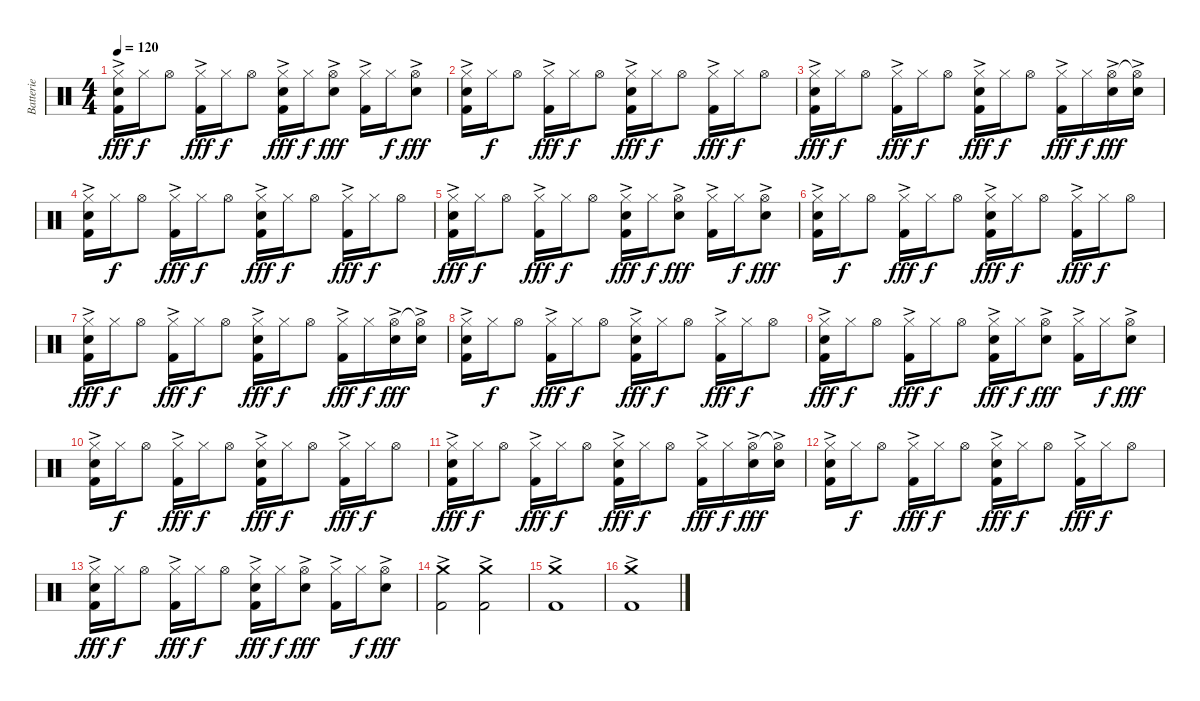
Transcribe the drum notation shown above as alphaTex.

\track ("Batterie" "Batterie") {instrument percussion}
\staff {score}
\articulation defaults
\ts (4 4)
\tempo 120
\clef neutral
\ks c
("Hi-Hat (closed)" "Electric Snare (hit)"{ac} "Kick (hit) 2"{ac}).16{dy fff} "Hi-Hat (closed)".16{dy f} "Hi-Hat (open)".8 ("Hi-Hat (closed)" "Kick (hit) 2"{ac}).16{dy fff} "Hi-Hat (closed)".16{dy f} "Hi-Hat (open)".8 ("Hi-Hat (closed)" "Electric Snare (hit)"{ac} "Kick (hit) 2"{ac}).16{dy fff} "Hi-Hat (closed)".16{dy f} ("Hi-Hat (open)" "Electric Snare (hit)"{ac}).8{dy fff} ("Hi-Hat (closed)" "Kick (hit) 2"{ac}).16 "Hi-Hat (closed)".16{dy f} ("Hi-Hat (open)" "Electric Snare (hit)"{ac}).8{dy fff} |
("Hi-Hat (closed)" "Electric Snare (hit)"{ac} "Kick (hit) 2"{ac}).16 "Hi-Hat (closed)".16{dy f} "Hi-Hat (open)".8 ("Hi-Hat (closed)" "Kick (hit) 2"{ac}).16{dy fff} "Hi-Hat (closed)".16{dy f} "Hi-Hat (open)".8 ("Hi-Hat (closed)" "Electric Snare (hit)"{ac} "Kick (hit) 2"{ac}).16{dy fff} "Hi-Hat (closed)".16{dy f} "Hi-Hat (open)".8 ("Hi-Hat (closed)" "Kick (hit) 2"{ac}).16{dy fff} "Hi-Hat (closed)".16{dy f} "Hi-Hat (open)".8 |
("Hi-Hat (closed)" "Electric Snare (hit)"{ac} "Kick (hit) 2"{ac}).16{dy fff} "Hi-Hat (closed)".16{dy f} "Hi-Hat (open)".8 ("Hi-Hat (closed)" "Kick (hit) 2"{ac}).16{dy fff} "Hi-Hat (closed)".16{dy f} "Hi-Hat (open)".8 ("Hi-Hat (closed)" "Electric Snare (hit)"{ac} "Kick (hit) 2"{ac}).16{dy fff} "Hi-Hat (closed)".16{dy f} "Hi-Hat (open)".8 ("Hi-Hat (closed)" "Kick (hit) 2"{ac}).16{dy fff} "Hi-Hat (closed)".16{dy f} ("Hi-Hat (open)" "Electric Snare (hit)"{ac}).16{dy fff} ("Hi-Hat (open)"{t} "Electric Snare (hit)"{ac}).16 |
("Hi-Hat (closed)" "Electric Snare (hit)"{ac} "Kick (hit) 2"{ac}).16 "Hi-Hat (closed)".16{dy f} "Hi-Hat (open)".8 ("Hi-Hat (closed)" "Kick (hit) 2"{ac}).16{dy fff} "Hi-Hat (closed)".16{dy f} "Hi-Hat (open)".8 ("Hi-Hat (closed)" "Electric Snare (hit)"{ac} "Kick (hit) 2"{ac}).16{dy fff} "Hi-Hat (closed)".16{dy f} "Hi-Hat (open)".8 ("Hi-Hat (closed)" "Kick (hit) 2"{ac}).16{dy fff} "Hi-Hat (closed)".16{dy f} "Hi-Hat (open)".8 |
("Hi-Hat (closed)" "Electric Snare (hit)"{ac} "Kick (hit) 2"{ac}).16{dy fff} "Hi-Hat (closed)".16{dy f} "Hi-Hat (open)".8 ("Hi-Hat (closed)" "Kick (hit) 2"{ac}).16{dy fff} "Hi-Hat (closed)".16{dy f} "Hi-Hat (open)".8 ("Hi-Hat (closed)" "Electric Snare (hit)"{ac} "Kick (hit) 2"{ac}).16{dy fff} "Hi-Hat (closed)".16{dy f} ("Hi-Hat (open)" "Electric Snare (hit)"{ac}).8{dy fff} ("Hi-Hat (closed)" "Kick (hit) 2"{ac}).16 "Hi-Hat (closed)".16{dy f} ("Hi-Hat (open)" "Electric Snare (hit)"{ac}).8{dy fff} |
("Hi-Hat (closed)" "Electric Snare (hit)"{ac} "Kick (hit) 2"{ac}).16 "Hi-Hat (closed)".16{dy f} "Hi-Hat (open)".8 ("Hi-Hat (closed)" "Kick (hit) 2"{ac}).16{dy fff} "Hi-Hat (closed)".16{dy f} "Hi-Hat (open)".8 ("Hi-Hat (closed)" "Electric Snare (hit)"{ac} "Kick (hit) 2"{ac}).16{dy fff} "Hi-Hat (closed)".16{dy f} "Hi-Hat (open)".8 ("Hi-Hat (closed)" "Kick (hit) 2"{ac}).16{dy fff} "Hi-Hat (closed)".16{dy f} "Hi-Hat (open)".8 |
("Hi-Hat (closed)" "Electric Snare (hit)"{ac} "Kick (hit) 2"{ac}).16{dy fff} "Hi-Hat (closed)".16{dy f} "Hi-Hat (open)".8 ("Hi-Hat (closed)" "Kick (hit) 2"{ac}).16{dy fff} "Hi-Hat (closed)".16{dy f} "Hi-Hat (open)".8 ("Hi-Hat (closed)" "Electric Snare (hit)"{ac} "Kick (hit) 2"{ac}).16{dy fff} "Hi-Hat (closed)".16{dy f} "Hi-Hat (open)".8 ("Hi-Hat (closed)" "Kick (hit) 2"{ac}).16{dy fff} "Hi-Hat (closed)".16{dy f} ("Hi-Hat (open)" "Electric Snare (hit)"{ac}).16{dy fff} ("Hi-Hat (open)"{t} "Electric Snare (hit)"{ac}).16 |
("Hi-Hat (closed)" "Electric Snare (hit)"{ac} "Kick (hit) 2"{ac}).16 "Hi-Hat (closed)".16{dy f} "Hi-Hat (open)".8 ("Hi-Hat (closed)" "Kick (hit) 2"{ac}).16{dy fff} "Hi-Hat (closed)".16{dy f} "Hi-Hat (open)".8 ("Hi-Hat (closed)" "Electric Snare (hit)"{ac} "Kick (hit) 2"{ac}).16{dy fff} "Hi-Hat (closed)".16{dy f} "Hi-Hat (open)".8 ("Hi-Hat (closed)" "Kick (hit) 2"{ac}).16{dy fff} "Hi-Hat (closed)".16{dy f} "Hi-Hat (open)".8 |
("Hi-Hat (closed)" "Electric Snare (hit)"{ac} "Kick (hit) 2"{ac}).16{dy fff} "Hi-Hat (closed)".16{dy f} "Hi-Hat (open)".8 ("Hi-Hat (closed)" "Kick (hit) 2"{ac}).16{dy fff} "Hi-Hat (closed)".16{dy f} "Hi-Hat (open)".8 ("Hi-Hat (closed)" "Electric Snare (hit)"{ac} "Kick (hit) 2"{ac}).16{dy fff} "Hi-Hat (closed)".16{dy f} ("Hi-Hat (open)" "Electric Snare (hit)"{ac}).8{dy fff} ("Hi-Hat (closed)" "Kick (hit) 2"{ac}).16 "Hi-Hat (closed)".16{dy f} ("Hi-Hat (open)" "Electric Snare (hit)"{ac}).8{dy fff} |
("Hi-Hat (closed)" "Electric Snare (hit)"{ac} "Kick (hit) 2"{ac}).16 "Hi-Hat (closed)".16{dy f} "Hi-Hat (open)".8 ("Hi-Hat (closed)" "Kick (hit) 2"{ac}).16{dy fff} "Hi-Hat (closed)".16{dy f} "Hi-Hat (open)".8 ("Hi-Hat (closed)" "Electric Snare (hit)"{ac} "Kick (hit) 2"{ac}).16{dy fff} "Hi-Hat (closed)".16{dy f} "Hi-Hat (open)".8 ("Hi-Hat (closed)" "Kick (hit) 2"{ac}).16{dy fff} "Hi-Hat (closed)".16{dy f} "Hi-Hat (open)".8 |
("Hi-Hat (closed)" "Electric Snare (hit)"{ac} "Kick (hit) 2"{ac}).16{dy fff} "Hi-Hat (closed)".16{dy f} "Hi-Hat (open)".8 ("Hi-Hat (closed)" "Kick (hit) 2"{ac}).16{dy fff} "Hi-Hat (closed)".16{dy f} "Hi-Hat (open)".8 ("Hi-Hat (closed)" "Electric Snare (hit)"{ac} "Kick (hit) 2"{ac}).16{dy fff} "Hi-Hat (closed)".16{dy f} "Hi-Hat (open)".8 ("Hi-Hat (closed)" "Kick (hit) 2"{ac}).16{dy fff} "Hi-Hat (closed)".16{dy f} ("Hi-Hat (open)" "Electric Snare (hit)"{ac}).16{dy fff} ("Hi-Hat (open)"{t} "Electric Snare (hit)"{ac}).16 |
("Hi-Hat (closed)" "Electric Snare (hit)"{ac} "Kick (hit) 2"{ac}).16 "Hi-Hat (closed)".16{dy f} "Hi-Hat (open)".8 ("Hi-Hat (closed)" "Kick (hit) 2"{ac}).16{dy fff} "Hi-Hat (closed)".16{dy f} "Hi-Hat (open)".8 ("Hi-Hat (closed)" "Electric Snare (hit)"{ac} "Kick (hit) 2"{ac}).16{dy fff} "Hi-Hat (closed)".16{dy f} "Hi-Hat (open)".8 ("Hi-Hat (closed)" "Kick (hit) 2"{ac}).16{dy fff} "Hi-Hat (closed)".16{dy f} "Hi-Hat (open)".8 |
("Hi-Hat (closed)" "Electric Snare (hit)"{ac} "Kick (hit) 2"{ac}).16{dy fff} "Hi-Hat (closed)".16{dy f} "Hi-Hat (open)".8 ("Hi-Hat (closed)" "Kick (hit) 2"{ac}).16{dy fff} "Hi-Hat (closed)".16{dy f} "Hi-Hat (open)".8 ("Hi-Hat (closed)" "Electric Snare (hit)"{ac} "Kick (hit) 2"{ac}).16{dy fff} "Hi-Hat (closed)".16{dy f} ("Hi-Hat (open)" "Electric Snare (hit)"{ac}).8{dy fff} ("Hi-Hat (closed)" "Kick (hit) 2"{ac}).16 "Hi-Hat (closed)".16{dy f} ("Hi-Hat (open)" "Electric Snare (hit)"{ac}).8{dy fff} |
("Crash medium (hit)" "Kick (hit) 2"{ac}).2 ("Crash medium (hit)" "Kick (hit) 2"{ac}).2 |
("Crash medium (hit)" "Kick (hit) 2"{ac}).1 |
("Crash medium (hit)" "Kick (hit) 2"{ac}).1
